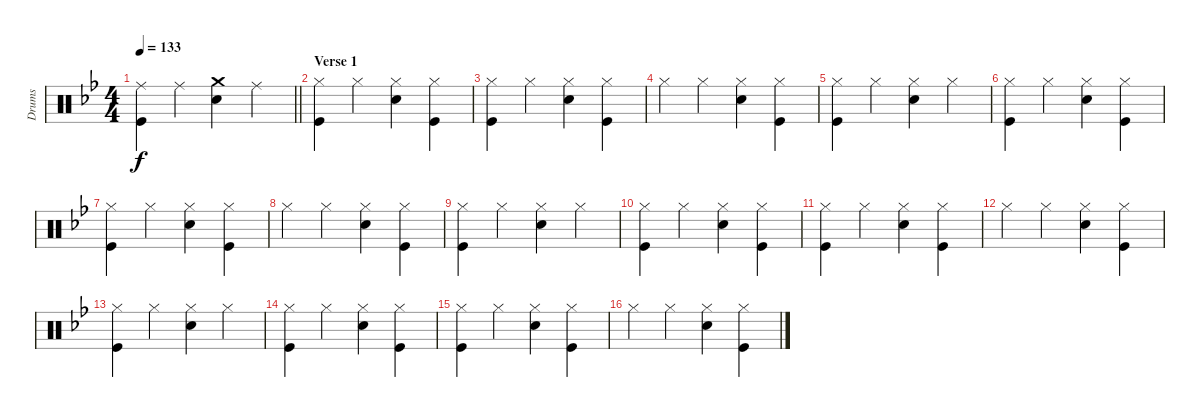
\track ("Drums" "Drums") {instrument percussion}
\staff {score}
\articulation defaults
\ts (4 4)
\tempo 133
\clef neutral
\barLineRight lightlight
\ks bb
("Ride (middle)" "Kick (hit)").4{dy f} "Ride (middle)".4 ("Crash medium (hit)" "Snare (hit) 2").4 "Ride (middle)".4 |
\section ("" "Verse 1")
("Hi-Hat (closed)" "Kick (hit)").4 "Hi-Hat (closed)".4 ("Hi-Hat (closed)" "Snare (hit) 2").4 ("Hi-Hat (closed)" "Kick (hit)").4 |
("Hi-Hat (closed)" "Kick (hit)").4 "Hi-Hat (closed)".4 ("Hi-Hat (closed)" "Snare (hit) 2").4 ("Hi-Hat (closed)" "Kick (hit)").4 |
"Hi-Hat (closed)".4 "Hi-Hat (closed)".4 ("Hi-Hat (closed)" "Snare (hit) 2").4 ("Hi-Hat (closed)" "Kick (hit)").4 |
("Hi-Hat (closed)" "Kick (hit)").4 "Hi-Hat (closed)".4 ("Hi-Hat (closed)" "Snare (hit) 2").4 "Hi-Hat (closed)".4 |
("Hi-Hat (closed)" "Kick (hit)").4 "Hi-Hat (closed)".4 ("Hi-Hat (closed)" "Snare (hit) 2").4 ("Hi-Hat (closed)" "Kick (hit)").4 |
("Hi-Hat (closed)" "Kick (hit)").4 "Hi-Hat (closed)".4 ("Hi-Hat (closed)" "Snare (hit) 2").4 ("Hi-Hat (closed)" "Kick (hit)").4 |
"Hi-Hat (closed)".4 "Hi-Hat (closed)".4 ("Hi-Hat (closed)" "Snare (hit) 2").4 ("Hi-Hat (closed)" "Kick (hit)").4 |
("Hi-Hat (closed)" "Kick (hit)").4 "Hi-Hat (closed)".4 ("Hi-Hat (closed)" "Snare (hit) 2").4 "Hi-Hat (closed)".4 |
("Hi-Hat (closed)" "Kick (hit)").4 "Hi-Hat (closed)".4 ("Hi-Hat (closed)" "Snare (hit) 2").4 ("Hi-Hat (closed)" "Kick (hit)").4 |
("Hi-Hat (closed)" "Kick (hit)").4 "Hi-Hat (closed)".4 ("Hi-Hat (closed)" "Snare (hit) 2").4 ("Hi-Hat (closed)" "Kick (hit)").4 |
"Hi-Hat (closed)".4 "Hi-Hat (closed)".4 ("Hi-Hat (closed)" "Snare (hit) 2").4 ("Hi-Hat (closed)" "Kick (hit)").4 |
("Hi-Hat (closed)" "Kick (hit)").4 "Hi-Hat (closed)".4 ("Hi-Hat (closed)" "Snare (hit) 2").4 "Hi-Hat (closed)".4 |
("Hi-Hat (closed)" "Kick (hit)").4 "Hi-Hat (closed)".4 ("Hi-Hat (closed)" "Snare (hit) 2").4 ("Hi-Hat (closed)" "Kick (hit)").4 |
("Hi-Hat (closed)" "Kick (hit)").4 "Hi-Hat (closed)".4 ("Hi-Hat (closed)" "Snare (hit) 2").4 ("Hi-Hat (closed)" "Kick (hit)").4 |
"Hi-Hat (closed)".4 "Hi-Hat (closed)".4 ("Hi-Hat (closed)" "Snare (hit) 2").4 ("Hi-Hat (closed)" "Kick (hit)").4
